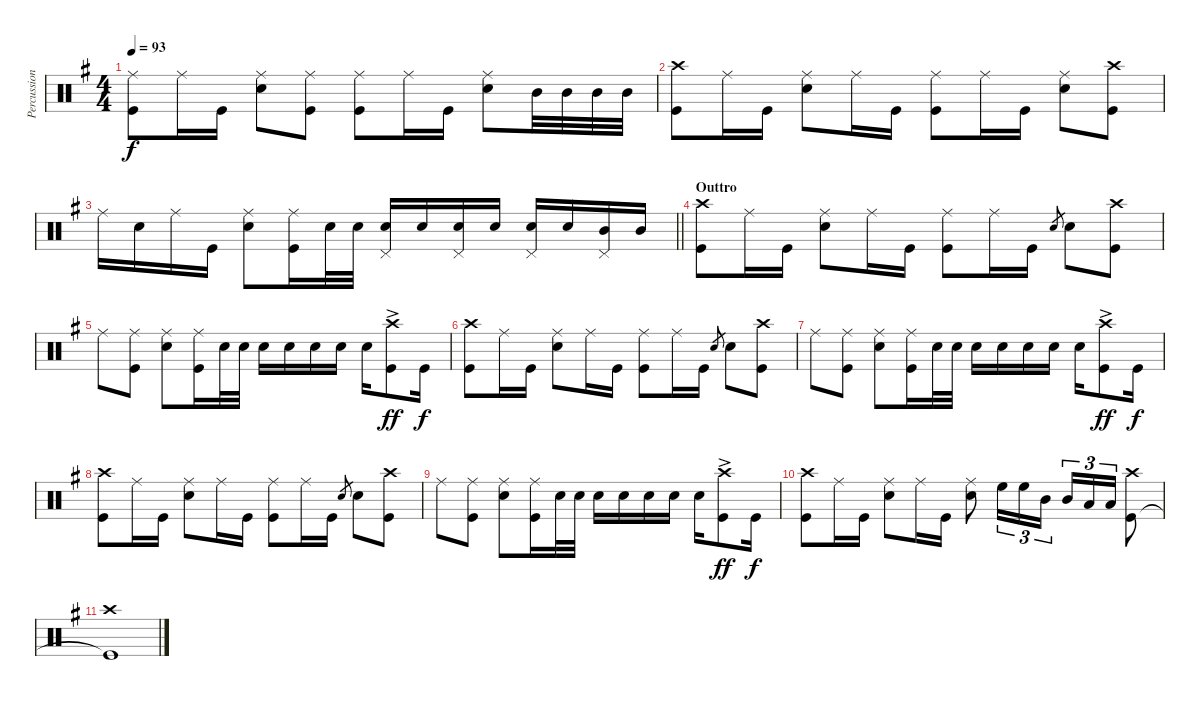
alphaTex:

\track ("Percussion" "Percussion") {instrument percussion}
\staff {score}
\articulation defaults
\ts (4 4)
\tempo 93
\clef neutral
\ks g
("Ride (middle)" "Kick (hit)").8{dy f} "Ride (middle)".16 "Kick (hit)".16 ("Ride (middle)" "Snare (hit) 2").8 ("Ride (middle)" "Kick (hit)").8 ("Ride (middle)" "Kick (hit)").8 "Ride (middle)".16 "Kick (hit)".16 ("Ride (middle)" "Snare (hit) 2").8 "Mid Tom (hit)".32 "Mid Tom (hit)".32 "Mid Tom (hit)".32 "Mid Tom (hit)".32 |
("Crash high (hit)" "Kick (hit)").8 "Ride (middle)".16 "Kick (hit)".16 ("Ride (middle)" "Snare (hit) 2").8 "Ride (middle)".16 "Kick (hit)".16 ("Ride (middle)" "Kick (hit)").8 "Ride (middle)".16 "Kick (hit)".16 ("Ride (middle)" "Snare (hit) 2").8 ("Crash high (hit)" "Kick (hit)").8 |
\barLineRight lightlight "Ride (middle)".16 "Snare (hit) 2".16 "Ride (middle)".16 "Kick (hit)".16
("Ride (middle)" "Snare (hit) 2").8 ("Ride (middle)" "Kick (hit)").16 "Snare (hit) 2".32 "Snare (hit) 2".32 ("Snare (hit) 2" "Pedal Hi-Hat (hit)").16 "Snare (hit) 2".16 ("Snare (hit) 2" "Pedal Hi-Hat (hit)").16 "Snare (hit) 2".16 ("Snare (hit) 2" "Pedal Hi-Hat (hit)").16 "Snare (hit) 2".16 ("Mid Tom (hit)" "Pedal Hi-Hat (hit)").16 "Mid Tom (hit)".16 |
\section ("" "Outtro")
("Crash high (hit)" "Kick (hit)").8 "Ride (middle)".16 "Kick (hit)".16 ("Ride (middle)" "Snare (hit) 2").8 "Ride (middle)".16 "Kick (hit)".16 ("Ride (middle)" "Kick (hit)").8 "Ride (middle)".16 "Kick (hit)".16 "Snare (hit) 2".8{gr} "Snare (hit) 2".8 ("Crash high (hit)" "Kick (hit)").8 |
"Ride (middle)".8 ("Ride (middle)" "Kick (hit)").8 ("Ride (middle)" "Snare (hit) 2").8 ("Ride (middle)" "Kick (hit)").16 "Snare (hit) 2".32 "Snare (hit) 2".32 "Snare (hit) 2".16 "Snare (hit) 2".16 "Snare (hit) 2".16 "Snare (hit) 2".16 "Snare (hit) 2".16 ("Crash high (hit)"{ac} "Kick (hit)").8{dy ff} "Kick (hit)".16{dy f} |
("Crash high (hit)" "Kick (hit)").8 "Ride (middle)".16 "Kick (hit)".16 ("Ride (middle)" "Snare (hit) 2").8 "Ride (middle)".16 "Kick (hit)".16 ("Ride (middle)" "Kick (hit)").8 "Ride (middle)".16 "Kick (hit)".16 "Snare (hit) 2".8{gr} "Snare (hit) 2".8 ("Crash high (hit)" "Kick (hit)").8 |
"Ride (middle)".8 ("Ride (middle)" "Kick (hit)").8 ("Ride (middle)" "Snare (hit) 2").8 ("Ride (middle)" "Kick (hit)").16 "Snare (hit) 2".32 "Snare (hit) 2".32 "Snare (hit) 2".16 "Snare (hit) 2".16 "Snare (hit) 2".16 "Snare (hit) 2".16 "Snare (hit) 2".16 ("Crash high (hit)"{ac} "Kick (hit)").8{dy ff} "Kick (hit)".16{dy f} |
("Crash high (hit)" "Kick (hit)").8 "Ride (middle)".16 "Kick (hit)".16 ("Ride (middle)" "Snare (hit) 2").8 "Ride (middle)".16 "Kick (hit)".16 ("Ride (middle)" "Kick (hit)").8 "Ride (middle)".16 "Kick (hit)".16 "Snare (hit) 2".8{gr} "Snare (hit) 2".8 ("Crash high (hit)" "Kick (hit)").8 |
"Ride (middle)".8 ("Ride (middle)" "Kick (hit)").8 ("Ride (middle)" "Snare (hit) 2").8 ("Ride (middle)" "Kick (hit)").16 "Snare (hit) 2".32 "Snare (hit) 2".32 "Snare (hit) 2".16 "Snare (hit) 2".16 "Snare (hit) 2".16 "Snare (hit) 2".16 "Snare (hit) 2".16 ("Crash high (hit)"{ac} "Kick (hit)").8{dy ff} "Kick (hit)".16{dy f} |
("Crash high (hit)" "Kick (hit)").8 "Ride (middle)".16 "Kick (hit)".16 ("Ride (middle)" "Snare (hit) 2").8 "Ride (middle)".16 "Kick (hit)".16 ("Ride (middle)" "Snare (hit) 2").8 "High Floor Tom (hit)".16{tu (3 2)} "High Floor Tom (hit)".16{tu (3 2)} "Mid Tom (hit)".16{tu (3 2)} "Mid Tom (hit)".16{tu (3 2)} "Low Floor Tom (hit)".16{tu (3 2)} "Low Floor Tom (hit)".16{tu (3 2)} ("Crash high (hit)" "Kick (hit)").8 |
("Crash high (hit)" "Kick (hit)"{t}).1
